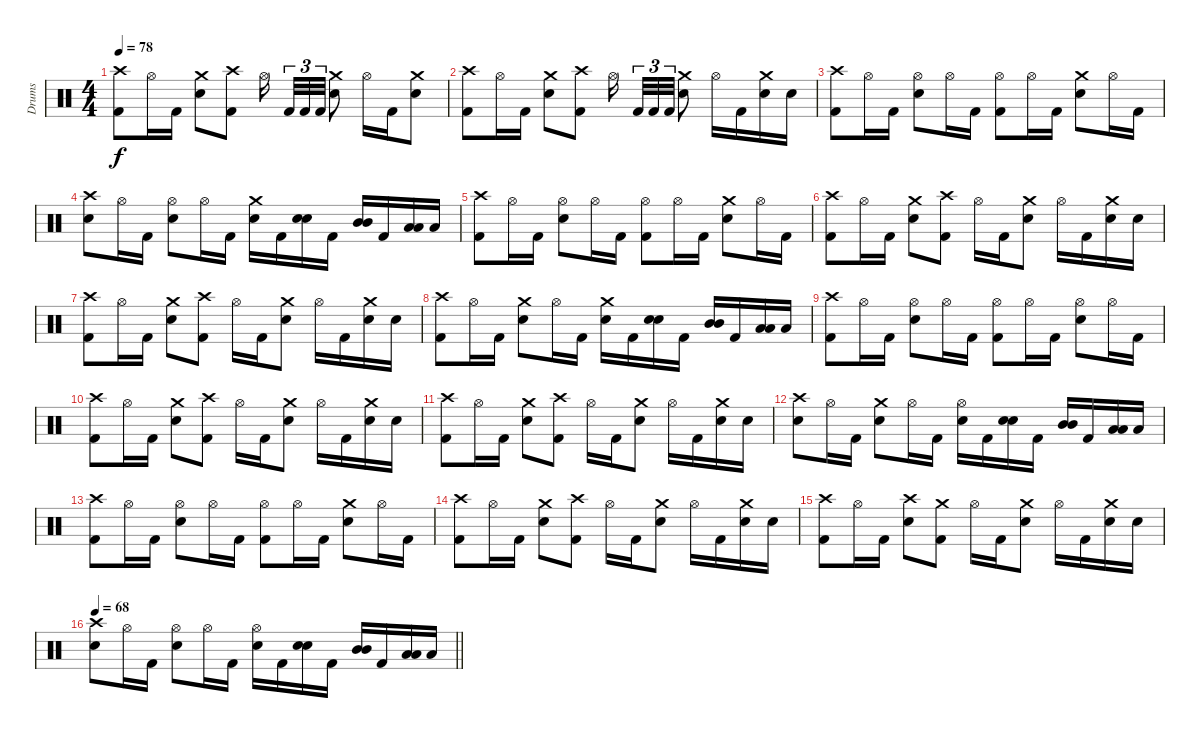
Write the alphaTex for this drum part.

\track ("Drums" "Drums") {instrument percussion}
\staff {score}
\articulation defaults
\ts (4 4)
\tempo 78
\clef neutral
\ks c
("Crash high (hit)" "Kick (hit) 2").8{dy f} "Hi-Hat (open)".16 "Kick (hit) 2".16 ("Crash medium (hit)" "Electric Snare (hit)").8 ("Crash high (hit)" "Kick (hit) 2").8 "Hi-Hat (open)".16{beam splitsecondary} "Kick (hit) 2".32{tu (3 2)} "Kick (hit) 2".32{tu (3 2)} "Kick (hit) 2".32{tu (3 2)} ("Crash medium (hit)" "Electric Snare (hit)").8 "Hi-Hat (open)".16 "Kick (hit) 2".16 ("Crash medium (hit)" "Electric Snare (hit)").8 |
("Crash high (hit)" "Kick (hit) 2").8 "Hi-Hat (open)".16 "Kick (hit) 2".16 ("Crash medium (hit)" "Electric Snare (hit)").8 ("Crash high (hit)" "Kick (hit) 2").8 "Hi-Hat (open)".16{beam splitsecondary} "Kick (hit) 2".32{tu (3 2)} "Kick (hit) 2".32{tu (3 2)} "Kick (hit) 2".32{tu (3 2)} ("Crash medium (hit)" "Electric Snare (hit)").8 "Hi-Hat (open)".16 "Kick (hit) 2".16 ("Crash medium (hit)" "Electric Snare (hit)").16 "Electric Snare (hit)".16 |
("Crash high (hit)" "Kick (hit) 2").8 "Hi-Hat (open)".16 "Kick (hit) 2".16 ("Hi-Hat (open)" "Electric Snare (hit)").8 "Hi-Hat (open)".16 "Kick (hit) 2".16 ("Hi-Hat (open)" "Kick (hit) 2").8 "Hi-Hat (open)".16 "Kick (hit) 2".16 ("Crash medium (hit)" "Electric Snare (hit)").8 "Hi-Hat (open)".16 "Kick (hit) 2".16 |
("Crash high (hit)" "Electric Snare (hit)").8 "Hi-Hat (open)".16 "Kick (hit) 2".16 ("Hi-Hat (open)" "Electric Snare (hit)").8 "Hi-Hat (open)".16 "Kick (hit) 2".16 ("Crash medium (hit)" "Electric Snare (hit)").16 "Kick (hit) 2".16 ("Electric Snare (hit)" "Electric Snare (hit)").16{bu 60} "Kick (hit) 2".16 ("Mid Tom (hit)" "Mid Tom (hit)").16{bu 60} "Kick (hit) 2".16 ("Low Tom (hit)" "Low Tom (hit)").16{bu 60} "Low Tom (hit)".16 |
("Crash high (hit)" "Kick (hit) 2").8 "Hi-Hat (open)".16 "Kick (hit) 2".16 ("Hi-Hat (open)" "Electric Snare (hit)").8 "Hi-Hat (open)".16 "Kick (hit) 2".16 ("Hi-Hat (open)" "Kick (hit) 2").8 "Hi-Hat (open)".16 "Kick (hit) 2".16 ("Crash medium (hit)" "Electric Snare (hit)").8 "Hi-Hat (open)".16 "Kick (hit) 2".16 |
("Crash high (hit)" "Kick (hit) 2").8 "Hi-Hat (open)".16 "Kick (hit) 2".16 ("Crash medium (hit)" "Electric Snare (hit)").8 ("Crash high (hit)" "Kick (hit) 2").8 "Hi-Hat (open)".16 "Kick (hit) 2".16 ("Crash medium (hit)" "Electric Snare (hit)").8 "Hi-Hat (open)".16 "Kick (hit) 2".16 ("Crash medium (hit)" "Electric Snare (hit)").16 "Electric Snare (hit)".16 |
("Crash high (hit)" "Kick (hit) 2").8 "Hi-Hat (open)".16 "Kick (hit) 2".16 ("Crash medium (hit)" "Electric Snare (hit)").8 ("Crash high (hit)" "Kick (hit) 2").8 "Hi-Hat (open)".16 "Kick (hit) 2".16 ("Crash medium (hit)" "Electric Snare (hit)").8 "Hi-Hat (open)".16 "Kick (hit) 2".16 ("Crash medium (hit)" "Electric Snare (hit)").16 "Electric Snare (hit)".16 |
("Crash high (hit)" "Kick (hit) 2").8 "Hi-Hat (open)".16 "Kick (hit) 2".16 ("Crash medium (hit)" "Electric Snare (hit)").8 "Hi-Hat (open)".16 "Kick (hit) 2".16 ("Crash medium (hit)" "Electric Snare (hit)").16 "Kick (hit) 2".16 ("Electric Snare (hit)" "Electric Snare (hit)").16{bu 60} "Kick (hit) 2".16 ("Mid Tom (hit)" "Mid Tom (hit)").16{bu 60} "Kick (hit) 2".16 ("Low Tom (hit)" "Low Tom (hit)").16{bu 60} "Low Tom (hit)".16 |
("Crash high (hit)" "Kick (hit) 2").8 "Hi-Hat (open)".16 "Kick (hit) 2".16 ("Hi-Hat (open)" "Electric Snare (hit)").8 "Hi-Hat (open)".16 "Kick (hit) 2".16 ("Hi-Hat (open)" "Kick (hit) 2").8 "Hi-Hat (open)".16 "Kick (hit) 2".16 ("Hi-Hat (open)" "Electric Snare (hit)").8 "Hi-Hat (open)".16 "Kick (hit) 2".16 |
("Crash high (hit)" "Kick (hit) 2").8 "Hi-Hat (open)".16 "Kick (hit) 2".16 ("Crash medium (hit)" "Electric Snare (hit)").8 ("Crash high (hit)" "Kick (hit) 2").8 "Hi-Hat (open)".16 "Kick (hit) 2".16 ("Crash medium (hit)" "Electric Snare (hit)").8 "Hi-Hat (open)".16 "Kick (hit) 2".16 ("Crash medium (hit)" "Electric Snare (hit)").16 "Electric Snare (hit)".16 |
("Crash high (hit)" "Kick (hit) 2").8 "Hi-Hat (open)".16 "Kick (hit) 2".16 ("Crash medium (hit)" "Electric Snare (hit)").8 ("Crash high (hit)" "Kick (hit) 2").8 "Hi-Hat (open)".16 "Kick (hit) 2".16 ("Crash medium (hit)" "Electric Snare (hit)").8 "Hi-Hat (open)".16 "Kick (hit) 2".16 ("Crash medium (hit)" "Electric Snare (hit)").16 "Electric Snare (hit)".16 |
("Crash high (hit)" "Electric Snare (hit)").8 "Hi-Hat (open)".16 "Kick (hit) 2".16 ("Crash medium (hit)" "Electric Snare (hit)").8 "Hi-Hat (open)".16 "Kick (hit) 2".16 ("Hi-Hat (open)" "Electric Snare (hit)").16 "Kick (hit) 2".16 ("Electric Snare (hit)" "Electric Snare (hit)").16{bu 60} "Kick (hit) 2".16 ("Mid Tom (hit)" "Mid Tom (hit)").16{bu 60} "Kick (hit) 2".16 ("Low Tom (hit)" "Low Tom (hit)").16{bu 60} "Low Tom (hit)".16 |
("Crash high (hit)" "Kick (hit) 2").8 "Hi-Hat (open)".16 "Kick (hit) 2".16 ("Hi-Hat (open)" "Electric Snare (hit)").8 "Hi-Hat (open)".16 "Kick (hit) 2".16 ("Hi-Hat (open)" "Kick (hit) 2").8 "Hi-Hat (open)".16 "Kick (hit) 2".16 ("Crash medium (hit)" "Electric Snare (hit)").8 "Hi-Hat (open)".16 "Kick (hit) 2".16 |
("Crash high (hit)" "Kick (hit) 2").8 "Hi-Hat (open)".16 "Kick (hit) 2".16 ("Crash medium (hit)" "Electric Snare (hit)").8 ("Crash high (hit)" "Kick (hit) 2").8 "Hi-Hat (open)".16 "Kick (hit) 2".16 ("Crash medium (hit)" "Electric Snare (hit)").8 "Hi-Hat (open)".16 "Kick (hit) 2".16 ("Crash medium (hit)" "Electric Snare (hit)").16 "Electric Snare (hit)".16 |
("Crash high (hit)" "Kick (hit) 2").8 "Hi-Hat (open)".16 "Kick (hit) 2".16 ("Crash high (hit)" "Electric Snare (hit)").8 ("Crash medium (hit)" "Kick (hit) 2").8 "Hi-Hat (open)".16 "Kick (hit) 2".16 ("Crash medium (hit)" "Electric Snare (hit)").8 "Hi-Hat (open)".16 "Kick (hit) 2".16 ("Crash medium (hit)" "Electric Snare (hit)").16 "Electric Snare (hit)".16 |
\tempo 68
\barLineRight lightlight
("Crash high (hit)" "Electric Snare (hit)").8 "Hi-Hat (open)".16 "Kick (hit) 2".16 ("Hi-Hat (open)" "Electric Snare (hit)").8 "Hi-Hat (open)".16 "Kick (hit) 2".16 ("Hi-Hat (open)" "Electric Snare (hit)").16 "Kick (hit) 2".16 ("Electric Snare (hit)" "Electric Snare (hit)").16{bu 60} "Kick (hit) 2".16 ("Mid Tom (hit)" "Mid Tom (hit)").16{bu 60} "Kick (hit) 2".16 ("Low Tom (hit)" "Low Tom (hit)").16{bu 60} "Low Tom (hit)".16
